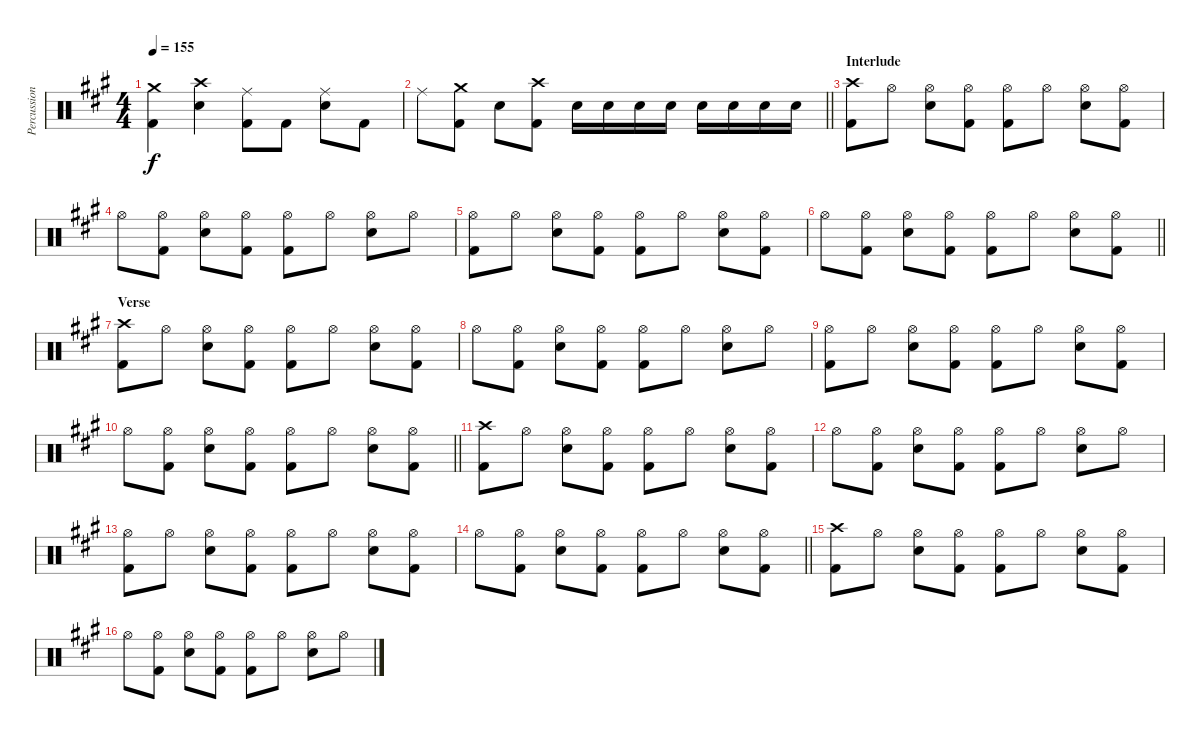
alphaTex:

\track ("Percussion" "Percussion") {instrument percussion}
\staff {score}
\articulation defaults
\ts (4 4)
\tempo 155
\clef neutral
\ks a
("Crash medium (hit)" "Kick (hit) 2").4{dy f} ("Crash high (hit)" "Electric Snare (hit)").4 ("Ride (middle)" "Kick (hit) 2").8 "Kick (hit) 2".8 ("Ride (middle)" "Electric Snare (hit)").8 "Kick (hit) 2".8 |
\barLineRight lightlight "Ride (middle)".8
("Crash medium (hit)" "Kick (hit) 2").8 "Electric Snare (hit)".8 ("Crash high (hit)" "Kick (hit) 2").8 "Electric Snare (hit)".16 "Electric Snare (hit)".16 "Electric Snare (hit)".16 "Electric Snare (hit)".16 "Electric Snare (hit)".16 "Electric Snare (hit)".16 "Electric Snare (hit)".16 "Electric Snare (hit)".16 |
\section ("" "Interlude")
("Crash high (hit)" "Kick (hit) 2").8 "Hi-Hat (open)".8 ("Hi-Hat (open)" "Electric Snare (hit)").8 ("Hi-Hat (open)" "Kick (hit) 2").8 ("Hi-Hat (open)" "Kick (hit) 2").8 "Hi-Hat (open)".8 ("Hi-Hat (open)" "Electric Snare (hit)").8 ("Hi-Hat (open)" "Kick (hit) 2").8 |
"Hi-Hat (open)".8 ("Hi-Hat (open)" "Kick (hit) 2").8 ("Hi-Hat (open)" "Electric Snare (hit)").8 ("Hi-Hat (open)" "Kick (hit) 2").8 ("Hi-Hat (open)" "Kick (hit) 2").8 "Hi-Hat (open)".8 ("Hi-Hat (open)" "Electric Snare (hit)").8 "Hi-Hat (open)".8 |
("Hi-Hat (open)" "Kick (hit) 2").8 "Hi-Hat (open)".8 ("Hi-Hat (open)" "Electric Snare (hit)").8 ("Hi-Hat (open)" "Kick (hit) 2").8 ("Hi-Hat (open)" "Kick (hit) 2").8 "Hi-Hat (open)".8 ("Hi-Hat (open)" "Electric Snare (hit)").8 ("Hi-Hat (open)" "Kick (hit) 2").8 |
\barLineRight lightlight "Hi-Hat (open)".8
("Hi-Hat (open)" "Kick (hit) 2").8 ("Hi-Hat (open)" "Electric Snare (hit)").8 ("Hi-Hat (open)" "Kick (hit) 2").8 ("Hi-Hat (open)" "Kick (hit) 2").8 "Hi-Hat (open)".8 ("Hi-Hat (open)" "Electric Snare (hit)").8 ("Hi-Hat (open)" "Kick (hit) 2").8 |
\section ("" "Verse")
("Crash high (hit)" "Kick (hit) 2").8 "Hi-Hat (open)".8 ("Hi-Hat (open)" "Electric Snare (hit)").8 ("Hi-Hat (open)" "Kick (hit) 2").8 ("Hi-Hat (open)" "Kick (hit) 2").8 "Hi-Hat (open)".8 ("Hi-Hat (open)" "Electric Snare (hit)").8 ("Hi-Hat (open)" "Kick (hit) 2").8 |
"Hi-Hat (open)".8 ("Hi-Hat (open)" "Kick (hit) 2").8 ("Hi-Hat (open)" "Electric Snare (hit)").8 ("Hi-Hat (open)" "Kick (hit) 2").8 ("Hi-Hat (open)" "Kick (hit) 2").8 "Hi-Hat (open)".8 ("Hi-Hat (open)" "Electric Snare (hit)").8 "Hi-Hat (open)".8 |
("Hi-Hat (open)" "Kick (hit) 2").8 "Hi-Hat (open)".8 ("Hi-Hat (open)" "Electric Snare (hit)").8 ("Hi-Hat (open)" "Kick (hit) 2").8 ("Hi-Hat (open)" "Kick (hit) 2").8 "Hi-Hat (open)".8 ("Hi-Hat (open)" "Electric Snare (hit)").8 ("Hi-Hat (open)" "Kick (hit) 2").8 |
\barLineRight lightlight "Hi-Hat (open)".8
("Hi-Hat (open)" "Kick (hit) 2").8 ("Hi-Hat (open)" "Electric Snare (hit)").8 ("Hi-Hat (open)" "Kick (hit) 2").8 ("Hi-Hat (open)" "Kick (hit) 2").8 "Hi-Hat (open)".8 ("Hi-Hat (open)" "Electric Snare (hit)").8 ("Hi-Hat (open)" "Kick (hit) 2").8 |
("Crash high (hit)" "Kick (hit) 2").8 "Hi-Hat (open)".8 ("Hi-Hat (open)" "Electric Snare (hit)").8 ("Hi-Hat (open)" "Kick (hit) 2").8 ("Hi-Hat (open)" "Kick (hit) 2").8 "Hi-Hat (open)".8 ("Hi-Hat (open)" "Electric Snare (hit)").8 ("Hi-Hat (open)" "Kick (hit) 2").8 |
"Hi-Hat (open)".8 ("Hi-Hat (open)" "Kick (hit) 2").8 ("Hi-Hat (open)" "Electric Snare (hit)").8 ("Hi-Hat (open)" "Kick (hit) 2").8 ("Hi-Hat (open)" "Kick (hit) 2").8 "Hi-Hat (open)".8 ("Hi-Hat (open)" "Electric Snare (hit)").8 "Hi-Hat (open)".8 |
("Hi-Hat (open)" "Kick (hit) 2").8 "Hi-Hat (open)".8 ("Hi-Hat (open)" "Electric Snare (hit)").8 ("Hi-Hat (open)" "Kick (hit) 2").8 ("Hi-Hat (open)" "Kick (hit) 2").8 "Hi-Hat (open)".8 ("Hi-Hat (open)" "Electric Snare (hit)").8 ("Hi-Hat (open)" "Kick (hit) 2").8 |
\barLineRight lightlight "Hi-Hat (open)".8
("Hi-Hat (open)" "Kick (hit) 2").8 ("Hi-Hat (open)" "Electric Snare (hit)").8 ("Hi-Hat (open)" "Kick (hit) 2").8 ("Hi-Hat (open)" "Kick (hit) 2").8 "Hi-Hat (open)".8 ("Hi-Hat (open)" "Electric Snare (hit)").8 ("Hi-Hat (open)" "Kick (hit) 2").8 |
("Crash high (hit)" "Kick (hit) 2").8 "Hi-Hat (open)".8 ("Hi-Hat (open)" "Electric Snare (hit)").8 ("Hi-Hat (open)" "Kick (hit) 2").8 ("Hi-Hat (open)" "Kick (hit) 2").8 "Hi-Hat (open)".8 ("Hi-Hat (open)" "Electric Snare (hit)").8 ("Hi-Hat (open)" "Kick (hit) 2").8 |
"Hi-Hat (open)".8 ("Hi-Hat (open)" "Kick (hit) 2").8 ("Hi-Hat (open)" "Electric Snare (hit)").8 ("Hi-Hat (open)" "Kick (hit) 2").8 ("Hi-Hat (open)" "Kick (hit) 2").8 "Hi-Hat (open)".8 ("Hi-Hat (open)" "Electric Snare (hit)").8 "Hi-Hat (open)".8
